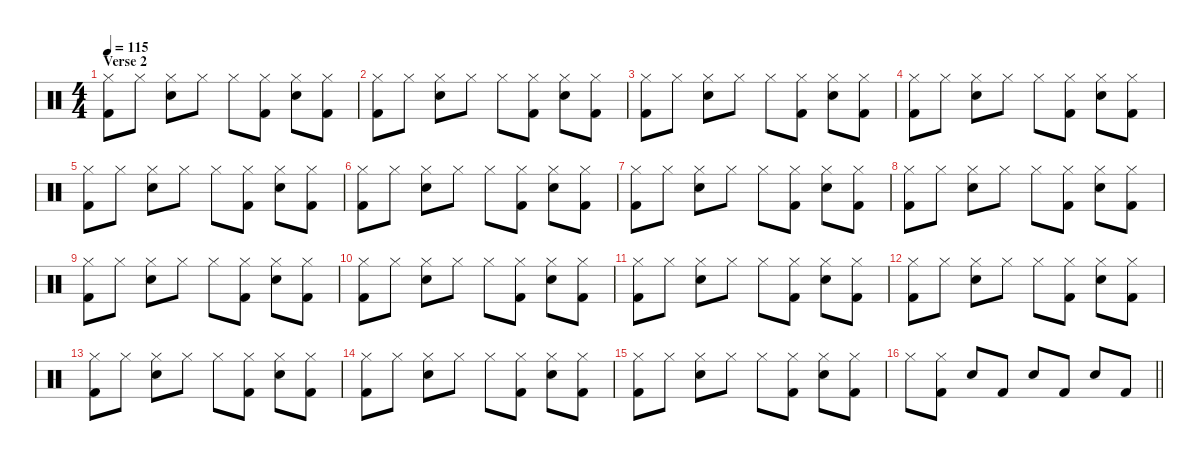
\defaultSystemsLayout 4
\hideDynamics
\bracketExtendMode nobrackets
\singleTrackTrackNamePolicy hidden
\multiTrackTrackNamePolicy hidden
\otherSystemsTrackNameOrientation horizontal
\track ("Drums" "drm.") {defaultSystemsLayout 4 instrument percussion}
\staff {score}
\articulation defaults
\ts (4 4)
\section ("" "Verse 2")
\tempo 115
\clef neutral
\ks c
("Hi-Hat (closed)" "Kick (hit) 2").8{dy f} "Hi-Hat (closed)".8 ("Hi-Hat (closed)" "Snare (hit) 2").8 "Hi-Hat (closed)".8 "Hi-Hat (closed)".8 ("Hi-Hat (closed)" "Kick (hit) 2").8 ("Hi-Hat (closed)" "Snare (hit) 2").8 ("Hi-Hat (closed)" "Kick (hit) 2").8 |
("Hi-Hat (closed)" "Kick (hit) 2").8 "Hi-Hat (closed)".8 ("Hi-Hat (closed)" "Snare (hit) 2").8 "Hi-Hat (closed)".8 "Hi-Hat (closed)".8 ("Hi-Hat (closed)" "Kick (hit) 2").8 ("Hi-Hat (closed)" "Snare (hit) 2").8 ("Hi-Hat (closed)" "Kick (hit) 2").8 |
("Hi-Hat (closed)" "Kick (hit) 2").8 "Hi-Hat (closed)".8 ("Hi-Hat (closed)" "Snare (hit) 2").8 "Hi-Hat (closed)".8 "Hi-Hat (closed)".8 ("Hi-Hat (closed)" "Kick (hit) 2").8 ("Hi-Hat (closed)" "Snare (hit) 2").8 ("Hi-Hat (closed)" "Kick (hit) 2").8 |
("Hi-Hat (closed)" "Kick (hit) 2").8 "Hi-Hat (closed)".8 ("Hi-Hat (closed)" "Snare (hit) 2").8 "Hi-Hat (closed)".8 "Hi-Hat (closed)".8 ("Hi-Hat (closed)" "Kick (hit) 2").8 ("Hi-Hat (closed)" "Snare (hit) 2").8 ("Hi-Hat (closed)" "Kick (hit) 2").8 |
("Hi-Hat (closed)" "Kick (hit) 2").8 "Hi-Hat (closed)".8 ("Hi-Hat (closed)" "Snare (hit) 2").8 "Hi-Hat (closed)".8 "Hi-Hat (closed)".8 ("Hi-Hat (closed)" "Kick (hit) 2").8 ("Hi-Hat (closed)" "Snare (hit) 2").8 ("Hi-Hat (closed)" "Kick (hit) 2").8 |
("Hi-Hat (closed)" "Kick (hit) 2").8 "Hi-Hat (closed)".8 ("Hi-Hat (closed)" "Snare (hit) 2").8 "Hi-Hat (closed)".8 "Hi-Hat (closed)".8 ("Hi-Hat (closed)" "Kick (hit) 2").8 ("Hi-Hat (closed)" "Snare (hit) 2").8 ("Hi-Hat (closed)" "Kick (hit) 2").8 |
("Hi-Hat (closed)" "Kick (hit) 2").8 "Hi-Hat (closed)".8 ("Hi-Hat (closed)" "Snare (hit) 2").8 "Hi-Hat (closed)".8 "Hi-Hat (closed)".8 ("Hi-Hat (closed)" "Kick (hit) 2").8 ("Hi-Hat (closed)" "Snare (hit) 2").8 ("Hi-Hat (closed)" "Kick (hit) 2").8 |
("Hi-Hat (closed)" "Kick (hit) 2").8 "Hi-Hat (closed)".8 ("Hi-Hat (closed)" "Snare (hit) 2").8 "Hi-Hat (closed)".8 "Hi-Hat (closed)".8 ("Hi-Hat (closed)" "Kick (hit) 2").8 ("Hi-Hat (closed)" "Snare (hit) 2").8 ("Hi-Hat (closed)" "Kick (hit) 2").8 |
("Hi-Hat (closed)" "Kick (hit) 2").8 "Hi-Hat (closed)".8 ("Hi-Hat (closed)" "Snare (hit) 2").8 "Hi-Hat (closed)".8 "Hi-Hat (closed)".8 ("Hi-Hat (closed)" "Kick (hit) 2").8 ("Hi-Hat (closed)" "Snare (hit) 2").8 ("Hi-Hat (closed)" "Kick (hit) 2").8 |
("Hi-Hat (closed)" "Kick (hit) 2").8 "Hi-Hat (closed)".8 ("Hi-Hat (closed)" "Snare (hit) 2").8 "Hi-Hat (closed)".8 "Hi-Hat (closed)".8 ("Hi-Hat (closed)" "Kick (hit) 2").8 ("Hi-Hat (closed)" "Snare (hit) 2").8 ("Hi-Hat (closed)" "Kick (hit) 2").8 |
("Hi-Hat (closed)" "Kick (hit) 2").8 "Hi-Hat (closed)".8 ("Hi-Hat (closed)" "Snare (hit) 2").8 "Hi-Hat (closed)".8 "Hi-Hat (closed)".8 ("Hi-Hat (closed)" "Kick (hit) 2").8 ("Hi-Hat (closed)" "Snare (hit) 2").8 ("Hi-Hat (closed)" "Kick (hit) 2").8 |
("Hi-Hat (closed)" "Kick (hit) 2").8 "Hi-Hat (closed)".8 ("Hi-Hat (closed)" "Snare (hit) 2").8 "Hi-Hat (closed)".8 "Hi-Hat (closed)".8 ("Hi-Hat (closed)" "Kick (hit) 2").8 ("Hi-Hat (closed)" "Snare (hit) 2").8 ("Hi-Hat (closed)" "Kick (hit) 2").8 |
("Hi-Hat (closed)" "Kick (hit) 2").8 "Hi-Hat (closed)".8 ("Hi-Hat (closed)" "Snare (hit) 2").8 "Hi-Hat (closed)".8 "Hi-Hat (closed)".8 ("Hi-Hat (closed)" "Kick (hit) 2").8 ("Hi-Hat (closed)" "Snare (hit) 2").8 ("Hi-Hat (closed)" "Kick (hit) 2").8 |
("Hi-Hat (closed)" "Kick (hit) 2").8 "Hi-Hat (closed)".8 ("Hi-Hat (closed)" "Snare (hit) 2").8 "Hi-Hat (closed)".8 "Hi-Hat (closed)".8 ("Hi-Hat (closed)" "Kick (hit) 2").8 ("Hi-Hat (closed)" "Snare (hit) 2").8 ("Hi-Hat (closed)" "Kick (hit) 2").8 |
("Hi-Hat (closed)" "Kick (hit) 2").8 "Hi-Hat (closed)".8 ("Hi-Hat (closed)" "Snare (hit) 2").8 "Hi-Hat (closed)".8 "Hi-Hat (closed)".8 ("Hi-Hat (closed)" "Kick (hit) 2").8 ("Hi-Hat (closed)" "Snare (hit) 2").8 ("Hi-Hat (closed)" "Kick (hit) 2").8 |
\barLineRight lightlight "Hi-Hat (closed)".8
("Hi-Hat (closed)" "Kick (hit) 2").8 "Snare (hit) 2".8 "Kick (hit) 2".8 "Snare (hit) 2".8 "Kick (hit) 2".8 "Snare (hit) 2".8 "Kick (hit) 2".8
